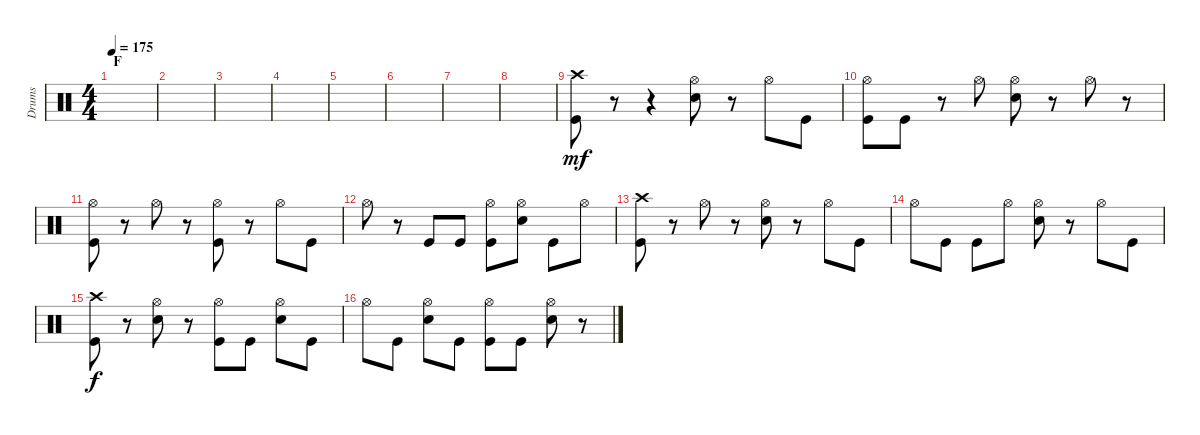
\track ("Drums" "Drums") {instrument percussion}
\staff {score}
\articulation defaults
\ts (4 4)
\section ("" "F")
\tempo 175
\clef neutral
\ks c
|
|
|
|
|
|
|
|
("Crash high (hit)" "Kick (hit)").8{dy mf} r.8 r.4 ("Hi-Hat (open)" "Snare (hit) 2").8 r.8 "Hi-Hat (open)".8 "Kick (hit)".8 |
("Hi-Hat (open)" "Kick (hit)").8 "Kick (hit)".8 r.8 "Hi-Hat (open)".8 ("Hi-Hat (open)" "Snare (hit) 2").8 r.8 "Hi-Hat (open)".8 r.8 |
("Hi-Hat (open)" "Kick (hit)").8 r.8 "Hi-Hat (open)".8 r.8 ("Hi-Hat (open)" "Kick (hit)").8 r.8 "Hi-Hat (open)".8 "Kick (hit)".8 |
"Hi-Hat (open)".8 r.8 "Kick (hit)".8 "Kick (hit)".8 ("Hi-Hat (open)" "Kick (hit)").8 ("Hi-Hat (open)" "Snare (hit) 2").8 "Kick (hit)".8 "Hi-Hat (open)".8 |
("Crash high (hit)" "Kick (hit)").8 r.8 "Hi-Hat (open)".8 r.8 ("Hi-Hat (open)" "Snare (hit) 2").8 r.8 "Hi-Hat (open)".8 "Kick (hit)".8 |
"Hi-Hat (open)".8 "Kick (hit)".8 "Kick (hit)".8 "Hi-Hat (open)".8 ("Hi-Hat (open)" "Snare (hit) 2").8 r.8 "Hi-Hat (open)".8 "Kick (hit)".8 |
("Crash high (hit)" "Kick (hit)").8{dy f} r.8 ("Hi-Hat (open)" "Snare (hit) 2").8 r.8 ("Hi-Hat (open)" "Kick (hit)").8 "Kick (hit)".8 ("Hi-Hat (open)" "Snare (hit) 2").8 "Kick (hit)".8 |
"Hi-Hat (open)".8 "Kick (hit)".8 ("Hi-Hat (open)" "Snare (hit) 2").8 "Kick (hit)".8 ("Hi-Hat (open)" "Kick (hit)").8 "Kick (hit)".8 ("Hi-Hat (open)" "Snare (hit) 2").8 r.8
